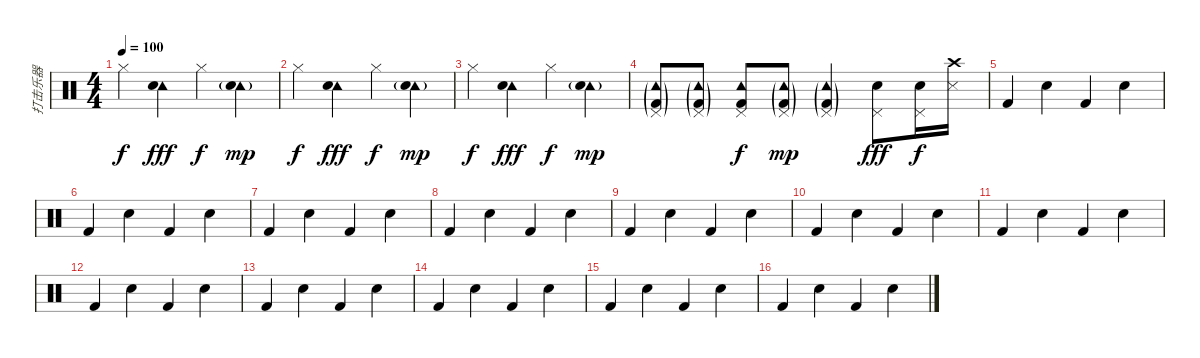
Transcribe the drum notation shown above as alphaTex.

\track ("打击乐器" "打击乐器") {instrument percussion}
\staff {score}
\articulation defaults
\ts (4 4)
\tempo 100
\clef neutral
\ks c "Hi-Hat (closed)".4{dy f}
("Tambourine (hit)" "Snare (hit) 2").4{dy fff} "Hi-Hat (closed)".4{dy f} ("Tambourine (hit)" "Snare (hit) 2"{g}).4{dy mp} |
"Hi-Hat (closed)".4{dy f} ("Tambourine (hit)" "Snare (hit) 2").4{dy fff} "Hi-Hat (closed)".4{dy f} ("Tambourine (hit)" "Snare (hit) 2"{g}).4{dy mp} |
"Hi-Hat (closed)".4{dy f} ("Tambourine (hit)" "Snare (hit) 2").4{dy fff} "Hi-Hat (closed)".4{dy f} ("Tambourine (hit)" "Snare (hit) 2"{g}).4{dy mp} |
("Kick (hit) 2"{g} "Tambourine (hit)"{g} "Pedal Hi-Hat (hit)"{g}).8 ("Kick (hit) 2"{g} "Tambourine (hit)"{g} "Pedal Hi-Hat (hit)"{g}).8 ("Kick (hit) 2" "Tambourine (hit)" "Pedal Hi-Hat (hit)").8{dy f} ("Kick (hit) 2"{g} "Tambourine (hit)"{g} "Pedal Hi-Hat (hit)"{g}).8{dy mp} ("Kick (hit) 2"{g} "Tambourine (hit)"{g} "Pedal Hi-Hat (hit)"{g}).4 ("Pedal Hi-Hat (hit)" "Snare (hit) 2").8{dy fff} ("Pedal Hi-Hat (hit)" "Snare (hit) 2").16{dy f} ("Crash high (hit)" "Snare (side stick) 3").16 |
"Kick (hit) 2".4 "Snare (hit) 2".4 "Kick (hit) 2".4 "Snare (hit) 2".4 |
"Kick (hit) 2".4 "Snare (hit) 2".4 "Kick (hit) 2".4 "Snare (hit) 2".4 |
"Kick (hit) 2".4 "Snare (hit) 2".4 "Kick (hit) 2".4 "Snare (hit) 2".4 |
"Kick (hit) 2".4 "Snare (hit) 2".4 "Kick (hit) 2".4 "Snare (hit) 2".4 |
"Kick (hit) 2".4 "Snare (hit) 2".4 "Kick (hit) 2".4 "Snare (hit) 2".4 |
"Kick (hit) 2".4 "Snare (hit) 2".4 "Kick (hit) 2".4 "Snare (hit) 2".4 |
"Kick (hit) 2".4 "Snare (hit) 2".4 "Kick (hit) 2".4 "Snare (hit) 2".4 |
"Kick (hit) 2".4 "Snare (hit) 2".4 "Kick (hit) 2".4 "Snare (hit) 2".4 |
"Kick (hit) 2".4 "Snare (hit) 2".4 "Kick (hit) 2".4 "Snare (hit) 2".4 |
"Kick (hit) 2".4 "Snare (hit) 2".4 "Kick (hit) 2".4 "Snare (hit) 2".4 |
"Kick (hit) 2".4 "Snare (hit) 2".4 "Kick (hit) 2".4 "Snare (hit) 2".4 |
"Kick (hit) 2".4 "Snare (hit) 2".4 "Kick (hit) 2".4 "Snare (hit) 2".4
